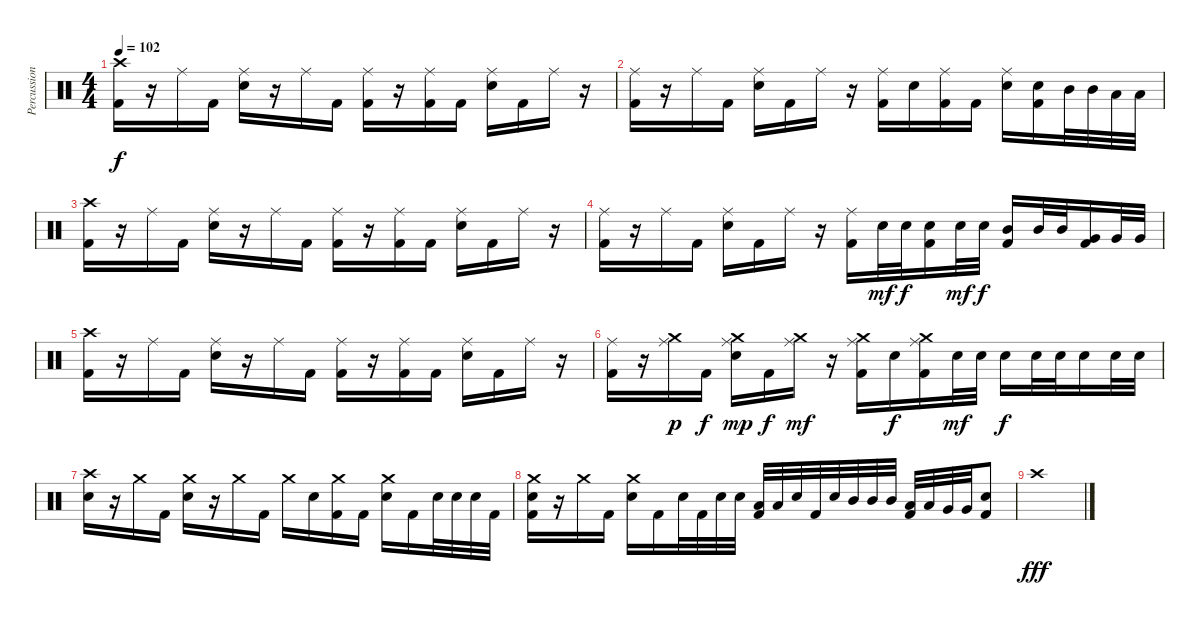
\track ("Percussion" "Percussion") {instrument percussion}
\staff {score}
\articulation defaults
\ts (4 4)
\tempo 102
\clef neutral
\ks c
("Crash high (hit)" "Kick (hit) 2").16{dy f} r.16 "Ride (middle)".16 "Kick (hit) 2".16 ("Ride (middle)" "Electric Snare (hit)").16 r.16 "Ride (middle)".16 "Kick (hit) 2".16 ("Ride (middle)" "Kick (hit) 2").16 r.16 ("Ride (middle)" "Kick (hit) 2").16 "Kick (hit) 2".16 ("Ride (middle)" "Electric Snare (hit)").16 "Kick (hit) 2".16 "Ride (middle)".16 r.16 |
("Ride (middle)" "Kick (hit) 2").16 r.16 "Ride (middle)".16 "Kick (hit) 2".16 ("Ride (middle)" "Electric Snare (hit)").16 "Kick (hit) 2".16 "Ride (middle)".16 r.16 ("Ride (middle)" "Kick (hit) 2").16 "Electric Snare (hit)".16 ("Ride (middle)" "Kick (hit) 2").16 "Kick (hit) 2".16 ("Ride (middle)" "Electric Snare (hit)").16 ("Electric Snare (hit)" "Kick (hit) 2").16 "Mid Tom (hit)".32 "Mid Tom (hit)".32 "Low Tom (hit)".32 "Low Tom (hit)".32 |
("Crash high (hit)" "Kick (hit) 2").16 r.16 "Ride (middle)".16 "Kick (hit) 2".16 ("Ride (middle)" "Electric Snare (hit)").16 r.16 "Ride (middle)".16 "Kick (hit) 2".16 ("Ride (middle)" "Kick (hit) 2").16 r.16 ("Ride (middle)" "Kick (hit) 2").16 "Kick (hit) 2".16 ("Ride (middle)" "Electric Snare (hit)").16 "Kick (hit) 2".16 "Ride (middle)".16 r.16 |
("Ride (middle)" "Kick (hit) 2").16 r.16 "Ride (middle)".16 "Kick (hit) 2".16 ("Ride (middle)" "Electric Snare (hit)").16 "Kick (hit) 2".16 "Ride (middle)".16 r.16 ("Ride (middle)" "Kick (hit) 2").16 "Electric Snare (hit)".32{dy mf} "Electric Snare (hit)".32{dy f} ("Electric Snare (hit)" "Kick (hit) 2").16 "Electric Snare (hit)".32{dy mf} "Electric Snare (hit)".32{dy f} ("Mid Tom (hit)" "Kick (hit) 2").16 "Mid Tom (hit)".32 "Mid Tom (hit)".32 ("Very Low Tom (hit)" "Kick (hit) 2").16 "Very Low Tom (hit)".32 "Very Low Tom (hit)".32 |
("Crash high (hit)" "Kick (hit) 2").16 r.16 "Ride (middle)".16 "Kick (hit) 2".16 ("Ride (middle)" "Electric Snare (hit)").16 r.16 "Ride (middle)".16 "Kick (hit) 2".16 ("Ride (middle)" "Kick (hit) 2").16 r.16 ("Ride (middle)" "Kick (hit) 2").16 "Kick (hit) 2".16 ("Ride (middle)" "Electric Snare (hit)").16 "Kick (hit) 2".16 "Ride (middle)".16 r.16 |
("Ride (middle)" "Kick (hit) 2").16 r.16 ("Ride (middle)" "Crash medium (hit)").16{dy p} "Kick (hit) 2".16{dy f} ("Ride (middle)" "Crash medium (hit)" "Electric Snare (hit)").16{dy mp} "Kick (hit) 2".16{dy f} ("Ride (middle)" "Crash medium (hit)").16{dy mf} r.16 ("Ride (middle)" "Crash medium (hit)" "Kick (hit) 2").16 "Electric Snare (hit)".16{dy f} ("Ride (middle)" "Crash medium (hit)" "Kick (hit) 2").16 "Electric Snare (hit)".32{dy mf} "Electric Snare (hit)".32 "Electric Snare (hit)".16{dy f} "Electric Snare (hit)".32 "Electric Snare (hit)".32 "Electric Snare (hit)".16 "Electric Snare (hit)".32 "Electric Snare (hit)".32 |
("Crash high (hit)" "Electric Snare (hit)").16 r.16 "Crash medium (hit)".16 "Kick (hit) 2".16 ("Crash medium (hit)" "Electric Snare (hit)").16 r.16 "Crash medium (hit)".16 "Kick (hit) 2".16 "Crash medium (hit)".16 "Electric Snare (hit)".16 ("Crash medium (hit)" "Kick (hit) 2").16 "Kick (hit) 2".16 ("Crash medium (hit)" "Electric Snare (hit)").16 "Kick (hit) 2".16 "Electric Snare (hit)".32 "Electric Snare (hit)".32 "Electric Snare (hit)".32 "Kick (hit) 2".32 |
("Crash medium (hit)" "Electric Snare (hit)" "Kick (hit) 2").16 r.16 "Crash medium (hit)".16 "Kick (hit) 2".16 ("Crash medium (hit)" "Electric Snare (hit)").16 "Kick (hit) 2".16 "Electric Snare (hit)".32 "Kick (hit) 2".32 "Electric Snare (hit)".32 "Electric Snare (hit)".32 ("Low Tom (hit)" "Kick (hit) 2").32 "Low Tom (hit)".32 "Electric Snare (hit)".32 "Kick (hit) 2".32 "Electric Snare (hit)".32 "Mid Tom (hit)".32 "Mid Tom (hit)".32 "Mid Tom (hit)".32 ("Low Tom (hit)" "Kick (hit) 2").32 "Low Tom (hit)".32 "Very Low Tom (hit)".32 "Very Low Tom (hit)".32 ("Electric Snare (hit)" "Kick (hit) 2").8 |
"Crash high (hit)".1{dy fff}
